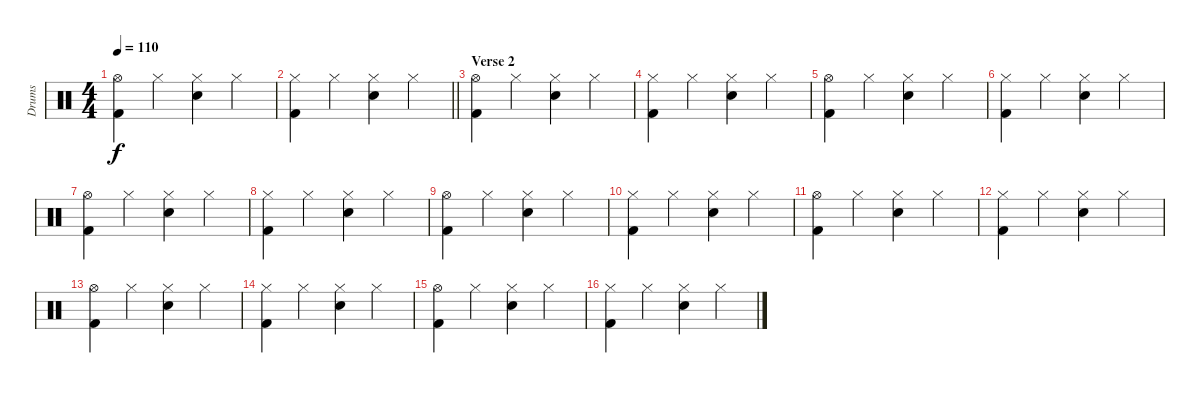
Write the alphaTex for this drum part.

\track ("Drums" "Drums") {instrument percussion}
\staff {score}
\articulation defaults
\ts (4 4)
\tempo 110
\clef neutral
\ks c
("Kick (hit) 2" "Hi-Hat (open)").4{dy f} "Hi-Hat (closed)".4 ("Electric Snare (hit)" "Hi-Hat (closed)").4 "Hi-Hat (closed)".4 |
\barLineRight lightlight
("Kick (hit) 2" "Hi-Hat (closed)").4 "Hi-Hat (closed)".4 ("Electric Snare (hit)" "Hi-Hat (closed)").4 "Hi-Hat (closed)".4 |
\section ("" "Verse 2")
("Kick (hit) 2" "Hi-Hat (open)").4 "Hi-Hat (closed)".4 ("Electric Snare (hit)" "Hi-Hat (closed)").4 "Hi-Hat (closed)".4 |
("Kick (hit) 2" "Hi-Hat (closed)").4 "Hi-Hat (closed)".4 ("Electric Snare (hit)" "Hi-Hat (closed)").4 "Hi-Hat (closed)".4 |
("Kick (hit) 2" "Hi-Hat (open)").4 "Hi-Hat (closed)".4 ("Electric Snare (hit)" "Hi-Hat (closed)").4 "Hi-Hat (closed)".4 |
("Kick (hit) 2" "Hi-Hat (closed)").4 "Hi-Hat (closed)".4 ("Electric Snare (hit)" "Hi-Hat (closed)").4 "Hi-Hat (closed)".4 |
("Kick (hit) 2" "Hi-Hat (open)").4 "Hi-Hat (closed)".4 ("Electric Snare (hit)" "Hi-Hat (closed)").4 "Hi-Hat (closed)".4 |
("Kick (hit) 2" "Hi-Hat (closed)").4 "Hi-Hat (closed)".4 ("Electric Snare (hit)" "Hi-Hat (closed)").4 "Hi-Hat (closed)".4 |
("Kick (hit) 2" "Hi-Hat (open)").4 "Hi-Hat (closed)".4 ("Electric Snare (hit)" "Hi-Hat (closed)").4 "Hi-Hat (closed)".4 |
("Kick (hit) 2" "Hi-Hat (closed)").4 "Hi-Hat (closed)".4 ("Electric Snare (hit)" "Hi-Hat (closed)").4 "Hi-Hat (closed)".4 |
("Kick (hit) 2" "Hi-Hat (open)").4 "Hi-Hat (closed)".4 ("Electric Snare (hit)" "Hi-Hat (closed)").4 "Hi-Hat (closed)".4 |
("Kick (hit) 2" "Hi-Hat (closed)").4 "Hi-Hat (closed)".4 ("Electric Snare (hit)" "Hi-Hat (closed)").4 "Hi-Hat (closed)".4 |
("Kick (hit) 2" "Hi-Hat (open)").4 "Hi-Hat (closed)".4 ("Electric Snare (hit)" "Hi-Hat (closed)").4 "Hi-Hat (closed)".4 |
("Kick (hit) 2" "Hi-Hat (closed)").4 "Hi-Hat (closed)".4 ("Electric Snare (hit)" "Hi-Hat (closed)").4 "Hi-Hat (closed)".4 |
("Kick (hit) 2" "Hi-Hat (open)").4 "Hi-Hat (closed)".4 ("Electric Snare (hit)" "Hi-Hat (closed)").4 "Hi-Hat (closed)".4 |
("Kick (hit) 2" "Hi-Hat (closed)").4 "Hi-Hat (closed)".4 ("Electric Snare (hit)" "Hi-Hat (closed)").4 "Hi-Hat (closed)".4
